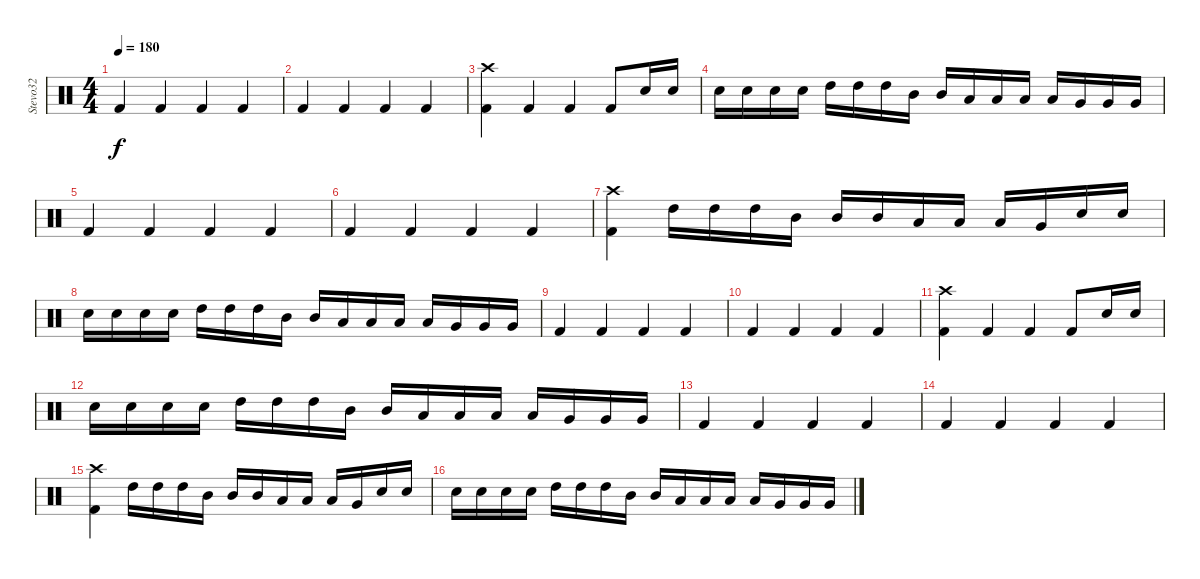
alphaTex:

\track ("Stevo32" "Stevo32") {instrument percussion}
\staff {score}
\articulation defaults
\ts (4 4)
\tempo 180
\clef neutral
\ks c "Kick (hit) 2".4{dy f} "Kick (hit) 2".4 "Kick (hit) 2".4 "Kick (hit) 2".4
|
"Kick (hit) 2".4 "Kick (hit) 2".4 "Kick (hit) 2".4 "Kick (hit) 2".4 |
("Kick (hit) 2" "Crash high (hit)").4 "Kick (hit) 2".4 "Kick (hit) 2".4 "Kick (hit) 2".8 "Electric Snare (hit)".16 "Electric Snare (hit)".16 |
"Electric Snare (hit)".16 "Electric Snare (hit)".16 "Electric Snare (hit)".16 "Electric Snare (hit)".16 "High Tom (hit)".16 "High Tom (hit)".16 "High Tom (hit)".16 "Mid Tom (hit)".16 "Mid Tom (hit)".16 "Low Tom (hit)".16 "Low Tom (hit)".16 "Low Tom (hit)".16 "Low Tom (hit)".16 "Very Low Tom (hit)".16 "Very Low Tom (hit)".16 "Very Low Tom (hit)".16 |
"Kick (hit) 2".4 "Kick (hit) 2".4 "Kick (hit) 2".4 "Kick (hit) 2".4 |
"Kick (hit) 2".4 "Kick (hit) 2".4 "Kick (hit) 2".4 "Kick (hit) 2".4 |
("Kick (hit) 2" "Crash high (hit)").4 "High Tom (hit)".16 "High Tom (hit)".16 "High Tom (hit)".16 "Mid Tom (hit)".16 "Mid Tom (hit)".16 "Mid Tom (hit)".16 "Low Tom (hit)".16 "Low Tom (hit)".16 "Low Tom (hit)".16 "Very Low Tom (hit)".16 "Electric Snare (hit)".16 "Electric Snare (hit)".16 |
"Electric Snare (hit)".16 "Electric Snare (hit)".16 "Electric Snare (hit)".16 "Electric Snare (hit)".16 "High Tom (hit)".16 "High Tom (hit)".16 "High Tom (hit)".16 "Mid Tom (hit)".16 "Mid Tom (hit)".16 "Low Tom (hit)".16 "Low Tom (hit)".16 "Low Tom (hit)".16 "Low Tom (hit)".16 "Very Low Tom (hit)".16 "Very Low Tom (hit)".16 "Very Low Tom (hit)".16 |
"Kick (hit) 2".4 "Kick (hit) 2".4 "Kick (hit) 2".4 "Kick (hit) 2".4 |
"Kick (hit) 2".4 "Kick (hit) 2".4 "Kick (hit) 2".4 "Kick (hit) 2".4 |
("Kick (hit) 2" "Crash high (hit)").4 "Kick (hit) 2".4 "Kick (hit) 2".4 "Kick (hit) 2".8 "Electric Snare (hit)".16 "Electric Snare (hit)".16 |
"Electric Snare (hit)".16 "Electric Snare (hit)".16 "Electric Snare (hit)".16 "Electric Snare (hit)".16 "High Tom (hit)".16 "High Tom (hit)".16 "High Tom (hit)".16 "Mid Tom (hit)".16 "Mid Tom (hit)".16 "Low Tom (hit)".16 "Low Tom (hit)".16 "Low Tom (hit)".16 "Low Tom (hit)".16 "Very Low Tom (hit)".16 "Very Low Tom (hit)".16 "Very Low Tom (hit)".16 |
"Kick (hit) 2".4 "Kick (hit) 2".4 "Kick (hit) 2".4 "Kick (hit) 2".4 |
"Kick (hit) 2".4 "Kick (hit) 2".4 "Kick (hit) 2".4 "Kick (hit) 2".4 |
("Kick (hit) 2" "Crash high (hit)").4 "High Tom (hit)".16 "High Tom (hit)".16 "High Tom (hit)".16 "Mid Tom (hit)".16 "Mid Tom (hit)".16 "Mid Tom (hit)".16 "Low Tom (hit)".16 "Low Tom (hit)".16 "Low Tom (hit)".16 "Very Low Tom (hit)".16 "Electric Snare (hit)".16 "Electric Snare (hit)".16 |
"Electric Snare (hit)".16 "Electric Snare (hit)".16 "Electric Snare (hit)".16 "Electric Snare (hit)".16 "High Tom (hit)".16 "High Tom (hit)".16 "High Tom (hit)".16 "Mid Tom (hit)".16 "Mid Tom (hit)".16 "Low Tom (hit)".16 "Low Tom (hit)".16 "Low Tom (hit)".16 "Low Tom (hit)".16 "Very Low Tom (hit)".16 "Very Low Tom (hit)".16 "Very Low Tom (hit)".16
